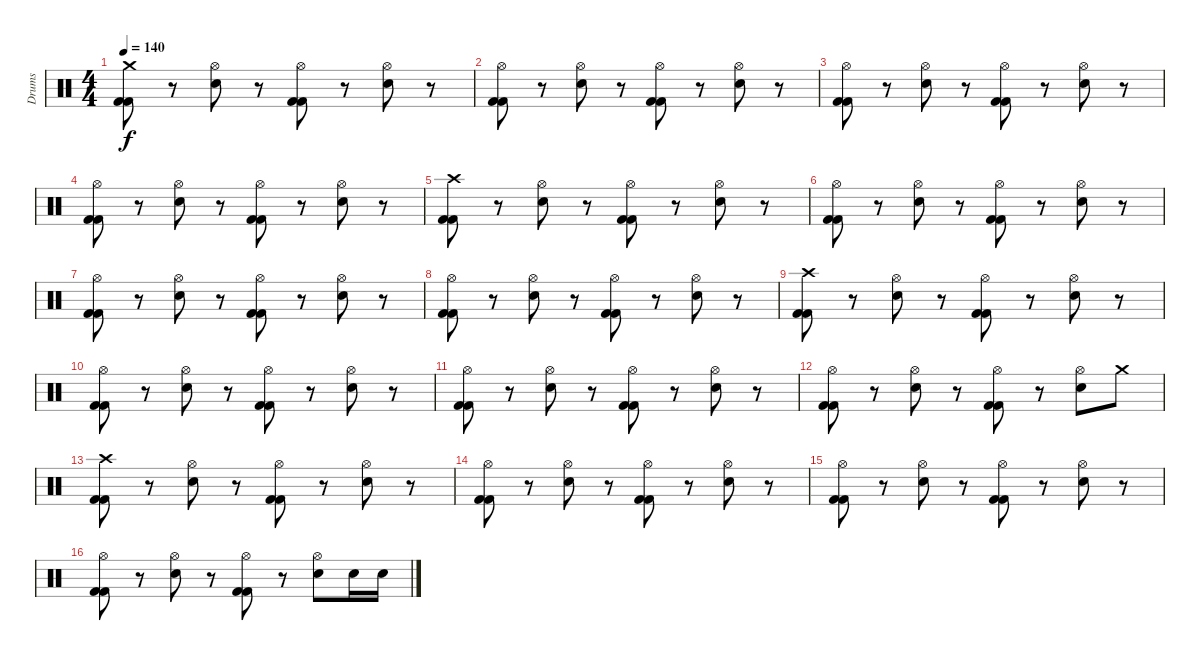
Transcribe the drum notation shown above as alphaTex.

\track ("Drums" "Drums") {instrument percussion}
\staff {score}
\articulation defaults
\ts (4 4)
\tempo 140
\clef neutral
\ks c
("Crash medium (hit)" "Kick (hit) 2" "Kick (hit) 2").8{dy f} r.8 ("Hi-Hat (open)" "Electric Snare (hit)").8 r.8 ("Hi-Hat (open)" "Kick (hit) 2" "Kick (hit) 2").8 r.8 ("Hi-Hat (open)" "Electric Snare (hit)").8 r.8 |
("Hi-Hat (open)" "Kick (hit) 2" "Kick (hit) 2").8 r.8 ("Hi-Hat (open)" "Electric Snare (hit)").8 r.8 ("Hi-Hat (open)" "Kick (hit) 2" "Kick (hit) 2").8 r.8 ("Hi-Hat (open)" "Electric Snare (hit)").8 r.8 |
("Hi-Hat (open)" "Kick (hit) 2" "Kick (hit) 2").8 r.8 ("Hi-Hat (open)" "Electric Snare (hit)").8 r.8 ("Hi-Hat (open)" "Kick (hit) 2" "Kick (hit) 2").8 r.8 ("Hi-Hat (open)" "Electric Snare (hit)").8 r.8 |
("Hi-Hat (open)" "Kick (hit) 2" "Kick (hit) 2").8 r.8 ("Hi-Hat (open)" "Electric Snare (hit)").8 r.8 ("Hi-Hat (open)" "Kick (hit) 2" "Kick (hit) 2").8 r.8 ("Hi-Hat (open)" "Electric Snare (hit)").8 r.8 |
("Crash high (hit)" "Kick (hit) 2" "Kick (hit) 2").8 r.8 ("Hi-Hat (open)" "Electric Snare (hit)").8 r.8 ("Hi-Hat (open)" "Kick (hit) 2" "Kick (hit) 2").8 r.8 ("Hi-Hat (open)" "Electric Snare (hit)").8 r.8 |
("Hi-Hat (open)" "Kick (hit) 2" "Kick (hit) 2").8 r.8 ("Hi-Hat (open)" "Electric Snare (hit)").8 r.8 ("Hi-Hat (open)" "Kick (hit) 2" "Kick (hit) 2").8 r.8 ("Hi-Hat (open)" "Electric Snare (hit)").8 r.8 |
("Hi-Hat (open)" "Kick (hit) 2" "Kick (hit) 2").8 r.8 ("Hi-Hat (open)" "Electric Snare (hit)").8 r.8 ("Hi-Hat (open)" "Kick (hit) 2" "Kick (hit) 2").8 r.8 ("Hi-Hat (open)" "Electric Snare (hit)").8 r.8 |
("Hi-Hat (open)" "Kick (hit) 2" "Kick (hit) 2").8 r.8 ("Hi-Hat (open)" "Electric Snare (hit)").8 r.8 ("Hi-Hat (open)" "Kick (hit) 2" "Kick (hit) 2").8 r.8 ("Hi-Hat (open)" "Electric Snare (hit)").8 r.8 |
("Crash high (hit)" "Kick (hit) 2" "Kick (hit) 2").8 r.8 ("Hi-Hat (open)" "Electric Snare (hit)").8 r.8 ("Hi-Hat (open)" "Kick (hit) 2" "Kick (hit) 2").8 r.8 ("Hi-Hat (open)" "Electric Snare (hit)").8 r.8 |
("Hi-Hat (open)" "Kick (hit) 2" "Kick (hit) 2").8 r.8 ("Hi-Hat (open)" "Electric Snare (hit)").8 r.8 ("Hi-Hat (open)" "Kick (hit) 2" "Kick (hit) 2").8 r.8 ("Hi-Hat (open)" "Electric Snare (hit)").8 r.8 |
("Hi-Hat (open)" "Kick (hit) 2" "Kick (hit) 2").8 r.8 ("Hi-Hat (open)" "Electric Snare (hit)").8 r.8 ("Hi-Hat (open)" "Kick (hit) 2" "Kick (hit) 2").8 r.8 ("Hi-Hat (open)" "Electric Snare (hit)").8 r.8 |
("Hi-Hat (open)" "Kick (hit) 2" "Kick (hit) 2").8 r.8 ("Hi-Hat (open)" "Electric Snare (hit)").8 r.8 ("Hi-Hat (open)" "Kick (hit) 2" "Kick (hit) 2").8 r.8 ("Hi-Hat (open)" "Electric Snare (hit)").8 "Crash medium (hit)".8 |
("Crash high (hit)" "Kick (hit) 2" "Kick (hit) 2").8 r.8 ("Hi-Hat (open)" "Electric Snare (hit)").8 r.8 ("Hi-Hat (open)" "Kick (hit) 2" "Kick (hit) 2").8 r.8 ("Hi-Hat (open)" "Electric Snare (hit)").8 r.8 |
("Hi-Hat (open)" "Kick (hit) 2" "Kick (hit) 2").8 r.8 ("Hi-Hat (open)" "Electric Snare (hit)").8 r.8 ("Hi-Hat (open)" "Kick (hit) 2" "Kick (hit) 2").8 r.8 ("Hi-Hat (open)" "Electric Snare (hit)").8 r.8 |
("Hi-Hat (open)" "Kick (hit) 2" "Kick (hit) 2").8 r.8 ("Hi-Hat (open)" "Electric Snare (hit)").8 r.8 ("Hi-Hat (open)" "Kick (hit) 2" "Kick (hit) 2").8 r.8 ("Hi-Hat (open)" "Electric Snare (hit)").8 r.8 |
("Hi-Hat (open)" "Kick (hit) 2" "Kick (hit) 2").8 r.8 ("Hi-Hat (open)" "Electric Snare (hit)").8 r.8 ("Hi-Hat (open)" "Kick (hit) 2" "Kick (hit) 2").8 r.8 ("Hi-Hat (open)" "Electric Snare (hit)").8 "Electric Snare (hit)".16 "Electric Snare (hit)".16
